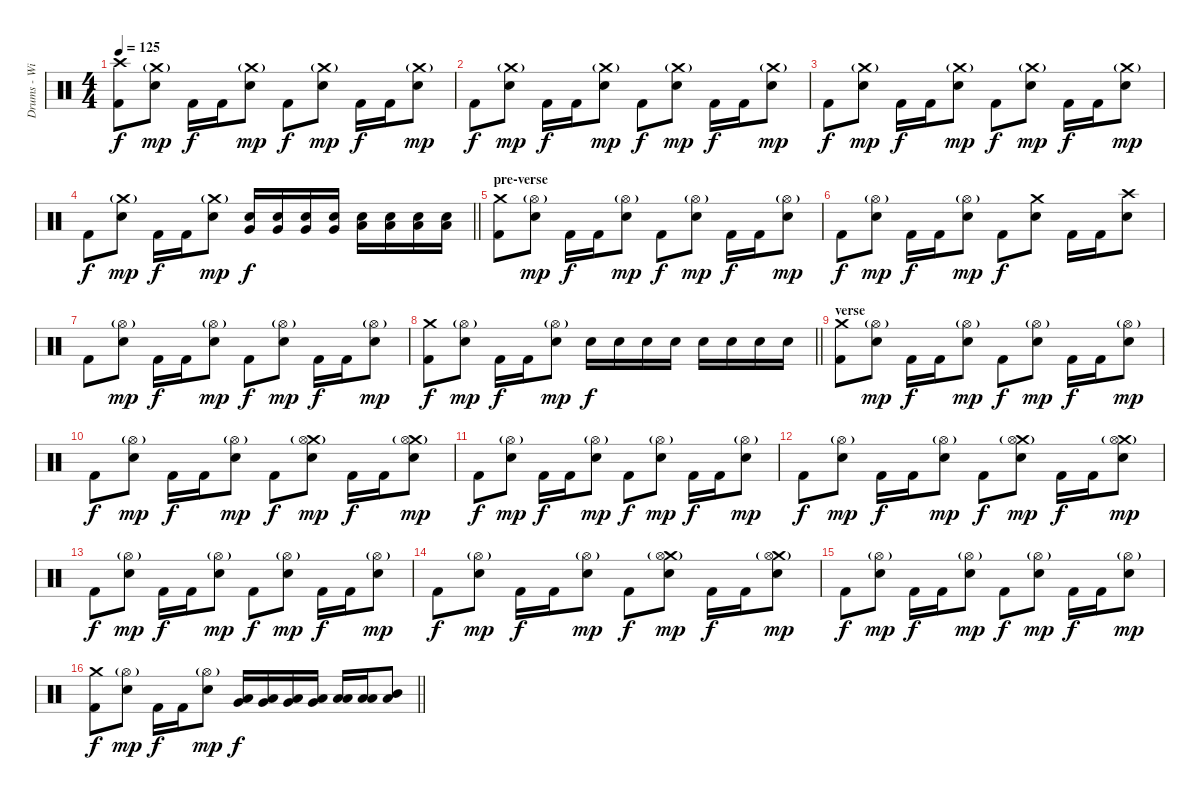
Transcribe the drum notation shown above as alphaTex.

\track ("Drums - Willie Buchan" "Drums - Wi") {instrument percussion}
\staff {score}
\articulation defaults
\ts (4 4)
\tempo 125
\clef neutral
\ks c
("Crash high (hit)" "Kick (hit) 2").8{dy f} ("Crash medium (hit)"{g} "Electric Snare (hit)").8{dy mp} "Kick (hit) 2".16{dy f} "Kick (hit) 2".16 ("Crash medium (hit)"{g} "Electric Snare (hit)").8{dy mp} "Kick (hit) 2".8{dy f} ("Crash medium (hit)"{g} "Electric Snare (hit)").8{dy mp} "Kick (hit) 2".16{dy f} "Kick (hit) 2".16 ("Crash medium (hit)"{g} "Electric Snare (hit)").8{dy mp} |
"Kick (hit) 2".8{dy f} ("Crash medium (hit)"{g} "Electric Snare (hit)").8{dy mp} "Kick (hit) 2".16{dy f} "Kick (hit) 2".16 ("Crash medium (hit)"{g} "Electric Snare (hit)").8{dy mp} "Kick (hit) 2".8{dy f} ("Crash medium (hit)"{g} "Electric Snare (hit)").8{dy mp} "Kick (hit) 2".16{dy f} "Kick (hit) 2".16 ("Crash medium (hit)"{g} "Electric Snare (hit)").8{dy mp} |
"Kick (hit) 2".8{dy f} ("Crash medium (hit)"{g} "Electric Snare (hit)").8{dy mp} "Kick (hit) 2".16{dy f} "Kick (hit) 2".16 ("Crash medium (hit)"{g} "Electric Snare (hit)").8{dy mp} "Kick (hit) 2".8{dy f} ("Crash medium (hit)"{g} "Electric Snare (hit)").8{dy mp} "Kick (hit) 2".16{dy f} "Kick (hit) 2".16 ("Crash medium (hit)"{g} "Electric Snare (hit)").8{dy mp} |
\barLineRight lightlight "Kick (hit) 2".8{dy f}
("Crash medium (hit)"{g} "Electric Snare (hit)").8{dy mp} "Kick (hit) 2".16{dy f} "Kick (hit) 2".16 ("Crash medium (hit)"{g} "Electric Snare (hit)").8{dy mp} ("Very Low Tom (hit)" "Electric Snare (hit)").16{dy f} ("Very Low Tom (hit)" "Electric Snare (hit)").16 ("Very Low Tom (hit)" "Electric Snare (hit)").16 ("Very Low Tom (hit)" "Electric Snare (hit)").16 ("Low Tom (hit)" "Electric Snare (hit)").16 ("Low Tom (hit)" "Electric Snare (hit)").16 ("Low Tom (hit)" "Electric Snare (hit)").16 ("Low Tom (hit)" "Electric Snare (hit)").16 |
\section ("" "pre-verse")
("Crash medium (hit)" "Kick (hit) 2").8 ("Hi-Hat (open)"{g} "Electric Snare (hit)").8{dy mp} "Kick (hit) 2".16{dy f} "Kick (hit) 2".16 ("Hi-Hat (open)"{g} "Electric Snare (hit)").8{dy mp} "Kick (hit) 2".8{dy f} ("Hi-Hat (open)"{g} "Electric Snare (hit)").8{dy mp} "Kick (hit) 2".16{dy f} "Kick (hit) 2".16 ("Hi-Hat (open)"{g} "Electric Snare (hit)").8{dy mp} |
"Kick (hit) 2".8{dy f} ("Hi-Hat (open)"{g} "Electric Snare (hit)").8{dy mp} "Kick (hit) 2".16{dy f} "Kick (hit) 2".16 ("Hi-Hat (open)"{g} "Electric Snare (hit)").8{dy mp} "Kick (hit) 2".8{dy f} ("Crash medium (hit)" "Electric Snare (hit)").8 "Kick (hit) 2".16 "Kick (hit) 2".16 ("Crash high (hit)" "Electric Snare (hit)").8 |
"Kick (hit) 2".8 ("Hi-Hat (open)"{g} "Electric Snare (hit)").8{dy mp} "Kick (hit) 2".16{dy f} "Kick (hit) 2".16 ("Hi-Hat (open)"{g} "Electric Snare (hit)").8{dy mp} "Kick (hit) 2".8{dy f} ("Hi-Hat (open)"{g} "Electric Snare (hit)").8{dy mp} "Kick (hit) 2".16{dy f} "Kick (hit) 2".16 ("Hi-Hat (open)"{g} "Electric Snare (hit)").8{dy mp} |
\barLineRight lightlight
("Crash medium (hit)" "Kick (hit) 2").8{dy f} ("Hi-Hat (open)"{g} "Electric Snare (hit)").8{dy mp} "Kick (hit) 2".16{dy f} "Kick (hit) 2".16 ("Hi-Hat (open)"{g} "Electric Snare (hit)").8{dy mp} "Electric Snare (hit)".16{dy f} "Electric Snare (hit)".16 "Electric Snare (hit)".16 "Electric Snare (hit)".16 "Electric Snare (hit)".16 "Electric Snare (hit)".16 "Electric Snare (hit)".16 "Electric Snare (hit)".16 |
\section ("" "verse")
("Crash medium (hit)" "Kick (hit) 2").8 ("Hi-Hat (open)"{g} "Electric Snare (hit)").8{dy mp} "Kick (hit) 2".16{dy f} "Kick (hit) 2".16 ("Hi-Hat (open)"{g} "Electric Snare (hit)").8{dy mp} "Kick (hit) 2".8{dy f} ("Hi-Hat (open)"{g} "Electric Snare (hit)").8{dy mp} "Kick (hit) 2".16{dy f} "Kick (hit) 2".16 ("Hi-Hat (open)"{g} "Electric Snare (hit)").8{dy mp} |
"Kick (hit) 2".8{dy f} ("Hi-Hat (open)"{g} "Electric Snare (hit)").8{dy mp} "Kick (hit) 2".16{dy f} "Kick (hit) 2".16 ("Hi-Hat (open)"{g} "Electric Snare (hit)").8{dy mp} "Kick (hit) 2".8{dy f} ("Crash medium (hit)"{g} "Hi-Hat (open)"{g} "Electric Snare (hit)").8{dy mp} "Kick (hit) 2".16{dy f} "Kick (hit) 2".16 ("Crash medium (hit)"{g} "Hi-Hat (open)"{g} "Electric Snare (hit)").8{dy mp} |
"Kick (hit) 2".8{dy f} ("Hi-Hat (open)"{g} "Electric Snare (hit)").8{dy mp} "Kick (hit) 2".16{dy f} "Kick (hit) 2".16 ("Hi-Hat (open)"{g} "Electric Snare (hit)").8{dy mp} "Kick (hit) 2".8{dy f} ("Hi-Hat (open)"{g} "Electric Snare (hit)").8{dy mp} "Kick (hit) 2".16{dy f} "Kick (hit) 2".16 ("Hi-Hat (open)"{g} "Electric Snare (hit)").8{dy mp} |
"Kick (hit) 2".8{dy f} ("Hi-Hat (open)"{g} "Electric Snare (hit)").8{dy mp} "Kick (hit) 2".16{dy f} "Kick (hit) 2".16 ("Hi-Hat (open)"{g} "Electric Snare (hit)").8{dy mp} "Kick (hit) 2".8{dy f} ("Crash medium (hit)"{g} "Hi-Hat (open)"{g} "Electric Snare (hit)").8{dy mp} "Kick (hit) 2".16{dy f} "Kick (hit) 2".16 ("Crash medium (hit)"{g} "Hi-Hat (open)"{g} "Electric Snare (hit)").8{dy mp} |
"Kick (hit) 2".8{dy f} ("Hi-Hat (open)"{g} "Electric Snare (hit)").8{dy mp} "Kick (hit) 2".16{dy f} "Kick (hit) 2".16 ("Hi-Hat (open)"{g} "Electric Snare (hit)").8{dy mp} "Kick (hit) 2".8{dy f} ("Hi-Hat (open)"{g} "Electric Snare (hit)").8{dy mp} "Kick (hit) 2".16{dy f} "Kick (hit) 2".16 ("Hi-Hat (open)"{g} "Electric Snare (hit)").8{dy mp} |
"Kick (hit) 2".8{dy f} ("Hi-Hat (open)"{g} "Electric Snare (hit)").8{dy mp} "Kick (hit) 2".16{dy f} "Kick (hit) 2".16 ("Hi-Hat (open)"{g} "Electric Snare (hit)").8{dy mp} "Kick (hit) 2".8{dy f} ("Crash medium (hit)"{g} "Hi-Hat (open)"{g} "Electric Snare (hit)").8{dy mp} "Kick (hit) 2".16{dy f} "Kick (hit) 2".16 ("Crash medium (hit)"{g} "Hi-Hat (open)"{g} "Electric Snare (hit)").8{dy mp} |
"Kick (hit) 2".8{dy f} ("Hi-Hat (open)"{g} "Electric Snare (hit)").8{dy mp} "Kick (hit) 2".16{dy f} "Kick (hit) 2".16 ("Hi-Hat (open)"{g} "Electric Snare (hit)").8{dy mp} "Kick (hit) 2".8{dy f} ("Hi-Hat (open)"{g} "Electric Snare (hit)").8{dy mp} "Kick (hit) 2".16{dy f} "Kick (hit) 2".16 ("Hi-Hat (open)"{g} "Electric Snare (hit)").8{dy mp} |
\barLineRight lightlight
("Crash medium (hit)" "Kick (hit) 2").8{dy f} ("Hi-Hat (open)"{g} "Electric Snare (hit)").8{dy mp} "Kick (hit) 2".16{dy f} "Kick (hit) 2".16 ("Hi-Hat (open)"{g} "Electric Snare (hit)").8{dy mp} ("Very Low Tom (hit)" "Low Floor Tom (hit)").16{dy f} ("Very Low Tom (hit)" "Low Floor Tom (hit)").16 ("Very Low Tom (hit)" "Low Floor Tom (hit)").16 ("Very Low Tom (hit)" "Low Floor Tom (hit)").16 ("Low Tom (hit)" "Low Floor Tom (hit)").16 ("Low Tom (hit)" "Low Floor Tom (hit)").16 ("Mid Tom (hit)" "Low Floor Tom (hit)").8
